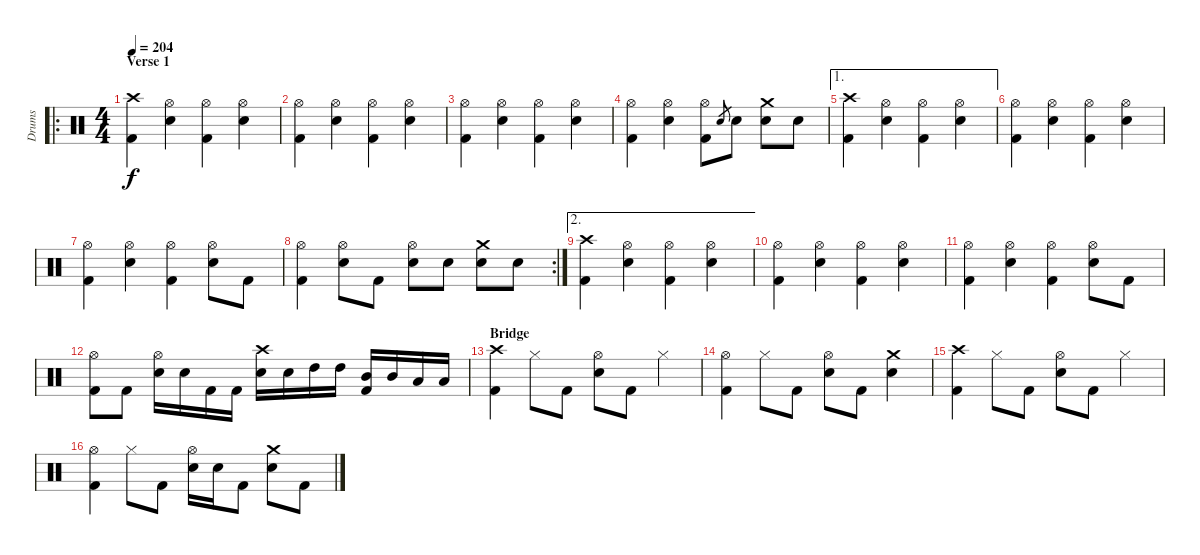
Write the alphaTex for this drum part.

\track ("Drums" "Drums") {instrument percussion}
\staff {score}
\articulation defaults
\ro
\ts (4 4)
\section ("" "Verse 1")
\tempo 204
\clef neutral
\ks c
("Crash high (hit)" "Kick (hit) 2").4{dy f} ("Hi-Hat (open)" "Electric Snare (hit)").4 ("Hi-Hat (open)" "Kick (hit) 2").4 ("Hi-Hat (open)" "Electric Snare (hit)").4 |
("Hi-Hat (open)" "Kick (hit) 2").4 ("Hi-Hat (open)" "Electric Snare (hit)").4 ("Hi-Hat (open)" "Kick (hit) 2").4 ("Hi-Hat (open)" "Electric Snare (hit)").4 |
("Hi-Hat (open)" "Kick (hit) 2").4 ("Hi-Hat (open)" "Electric Snare (hit)").4 ("Hi-Hat (open)" "Kick (hit) 2").4 ("Hi-Hat (open)" "Electric Snare (hit)").4 |
("Hi-Hat (open)" "Kick (hit) 2").4 ("Hi-Hat (open)" "Electric Snare (hit)").4 ("Hi-Hat (open)" "Kick (hit) 2").8 "Electric Snare (hit)".8{gr} "Electric Snare (hit)".8 ("Crash medium (hit)" "Electric Snare (hit)").8 "Electric Snare (hit)".8 |
\ae 1
("Crash high (hit)" "Kick (hit) 2").4 ("Hi-Hat (open)" "Electric Snare (hit)").4 ("Hi-Hat (open)" "Kick (hit) 2").4 ("Hi-Hat (open)" "Electric Snare (hit)").4 |
("Hi-Hat (open)" "Kick (hit) 2").4 ("Hi-Hat (open)" "Electric Snare (hit)").4 ("Hi-Hat (open)" "Kick (hit) 2").4 ("Hi-Hat (open)" "Electric Snare (hit)").4 |
("Hi-Hat (open)" "Kick (hit) 2").4 ("Hi-Hat (open)" "Electric Snare (hit)").4 ("Hi-Hat (open)" "Kick (hit) 2").4 ("Hi-Hat (open)" "Electric Snare (hit)").8 "Kick (hit) 2".8 |
\rc 2
("Hi-Hat (open)" "Kick (hit) 2").4 ("Hi-Hat (open)" "Electric Snare (hit)").8 "Kick (hit) 2".8 ("Hi-Hat (open)" "Electric Snare (hit)").8 "Electric Snare (hit)".8 ("Crash medium (hit)" "Electric Snare (hit)").8 "Electric Snare (hit)".8 |
\ae 2
("Crash high (hit)" "Kick (hit) 2").4 ("Hi-Hat (open)" "Electric Snare (hit)").4 ("Hi-Hat (open)" "Kick (hit) 2").4 ("Hi-Hat (open)" "Electric Snare (hit)").4 |
("Hi-Hat (open)" "Kick (hit) 2").4 ("Hi-Hat (open)" "Electric Snare (hit)").4 ("Hi-Hat (open)" "Kick (hit) 2").4 ("Hi-Hat (open)" "Electric Snare (hit)").4 |
("Hi-Hat (open)" "Kick (hit) 2").4 ("Hi-Hat (open)" "Electric Snare (hit)").4 ("Hi-Hat (open)" "Kick (hit) 2").4 ("Hi-Hat (open)" "Electric Snare (hit)").8 "Kick (hit) 2".8 |
("Hi-Hat (open)" "Kick (hit) 2").8 "Kick (hit) 2".8 ("Hi-Hat (open)" "Electric Snare (hit)").16 "Electric Snare (hit)".16 "Kick (hit) 2".16 "Kick (hit) 2".16 ("Crash high (hit)" "Electric Snare (hit)").16 "Electric Snare (hit)".16 "High Tom (hit)".16 "High Tom (hit)".16 ("Mid Tom (hit)" "Kick (hit) 2").16 "Mid Tom (hit)".16 "Low Tom (hit)".16 "Low Tom (hit)".16 |
\section ("" "Bridge")
("Crash high (hit)" "Kick (hit) 2").4 "Hi-Hat (closed)".8 "Kick (hit) 2".8 ("Hi-Hat (open)" "Electric Snare (hit)").8 "Kick (hit) 2".8 "Hi-Hat (closed)".4 |
("Hi-Hat (open)" "Kick (hit) 2").4 "Hi-Hat (closed)".8 "Kick (hit) 2".8 ("Hi-Hat (open)" "Electric Snare (hit)").8 "Kick (hit) 2".8 ("Crash medium (hit)" "Electric Snare (hit)").4 |
("Crash high (hit)" "Kick (hit) 2").4 "Hi-Hat (closed)".8 "Kick (hit) 2".8 ("Hi-Hat (open)" "Electric Snare (hit)").8 "Kick (hit) 2".8 "Hi-Hat (closed)".4 |
("Hi-Hat (open)" "Kick (hit) 2").4 "Hi-Hat (closed)".8 "Kick (hit) 2".8 ("Hi-Hat (open)" "Electric Snare (hit)").16 "Electric Snare (hit)".16 "Kick (hit) 2".8 ("Crash medium (hit)" "Electric Snare (hit)").8 "Kick (hit) 2".8
